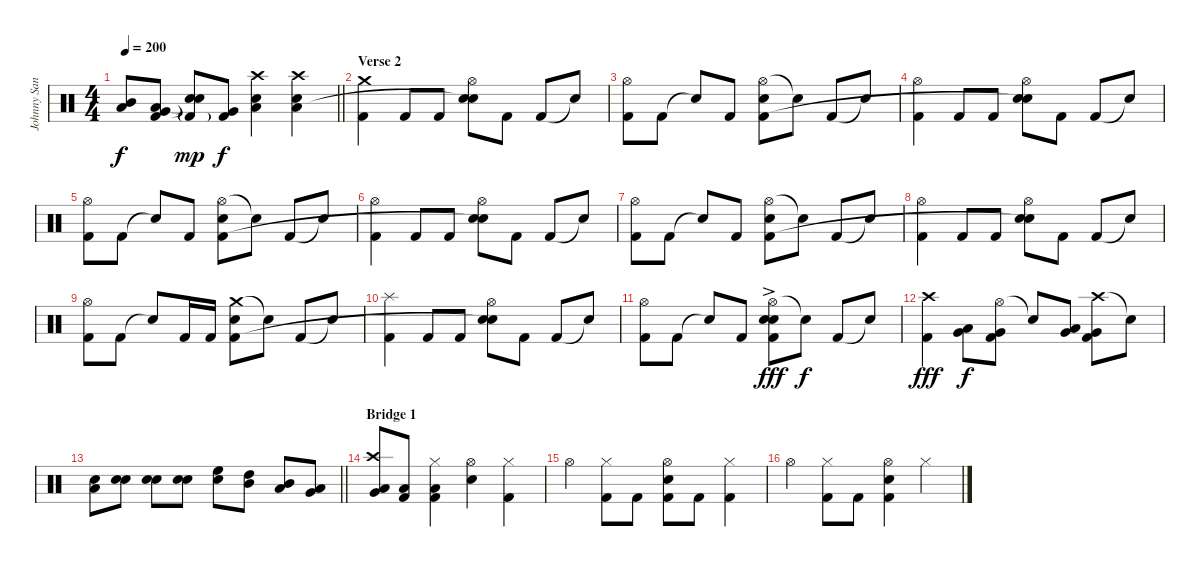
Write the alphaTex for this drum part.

\track ("Johnny Sandin" "Johnny San") {instrument percussion}
\staff {score}
\articulation defaults
\ts (4 4)
\tempo 200
\clef neutral
\barLineRight lightlight
\ks c
("Mid Tom (hit)" "Low Tom (hit)").8{dy f} ("Low Tom (hit)" "Very Low Tom (hit)" "Kick (hit) 2").8 ("Snare (hit)"{t} "Snare (hit)"{t} "Kick (hit) 2"{g}).8{dy mp} ("Very Low Tom (hit)" "Kick (hit) 2").8{dy f} ("Crash high (hit)" "Snare (hit) 2" "Low Tom (hit)").4 ("Crash high (hit)" "Snare (hit) 2" "Low Tom (hit)").4 |
\section ("" "Verse 2")
("Crash medium (hit)" "Kick (hit) 2").4 "Kick (hit) 2".8 "Kick (hit) 2".8 ("Hi-Hat (open)" "Snare (hit) 2" "Snare (hit)"{t}).8 "Kick (hit) 2".8 "Kick (hit) 2".8 "Snare (hit)"{t}.8 |
("Hi-Hat (open)" "Kick (hit) 2").8 "Kick (hit) 2".8 "Snare (hit)"{t}.8 "Kick (hit) 2".8 ("Hi-Hat (open)" "Snare (hit) 2" "Kick (hit) 2").8 "Snare (hit)"{t}.8 "Kick (hit) 2".8 "Snare (hit)"{t}.8 |
("Hi-Hat (open)" "Kick (hit) 2").4 "Kick (hit) 2".8 "Kick (hit) 2".8 ("Hi-Hat (open)" "Snare (hit) 2" "Snare (hit)"{t}).8 "Kick (hit) 2".8 "Kick (hit) 2".8 "Snare (hit)"{t}.8 |
("Hi-Hat (open)" "Kick (hit) 2").8 "Kick (hit) 2".8 "Snare (hit)"{t}.8 "Kick (hit) 2".8 ("Hi-Hat (open)" "Snare (hit) 2" "Kick (hit) 2").8 "Snare (hit)"{t}.8 "Kick (hit) 2".8 "Snare (hit)"{t}.8 |
("Hi-Hat (open)" "Kick (hit) 2").4 "Kick (hit) 2".8 "Kick (hit) 2".8 ("Hi-Hat (open)" "Snare (hit) 2" "Snare (hit)"{t}).8 "Kick (hit) 2".8 "Kick (hit) 2".8 "Snare (hit)"{t}.8 |
("Hi-Hat (open)" "Kick (hit) 2").8 "Kick (hit) 2".8 "Snare (hit)"{t}.8 "Kick (hit) 2".8 ("Hi-Hat (open)" "Snare (hit) 2" "Kick (hit) 2").8 "Snare (hit)"{t}.8 "Kick (hit) 2".8 "Snare (hit)"{t}.8 |
("Hi-Hat (open)" "Kick (hit) 2").4 "Kick (hit) 2".8 "Kick (hit) 2".8 ("Hi-Hat (open)" "Snare (hit) 2" "Snare (hit)"{t}).8 "Kick (hit) 2".8 "Kick (hit) 2".8 "Snare (hit)"{t}.8 |
("Hi-Hat (open)" "Kick (hit) 2").8 "Kick (hit) 2".8 "Snare (hit)"{t}.8 "Kick (hit) 2".16 "Kick (hit) 2".16 ("Crash medium (hit)" "Snare (hit) 2" "Kick (hit) 2").8 "Snare (hit)"{t}.8 "Kick (hit) 2".8 "Snare (hit)"{t}.8 |
("Splash (hit)" "Kick (hit) 2").4 "Kick (hit) 2".8 "Kick (hit) 2".8 ("Hi-Hat (open)" "Snare (hit) 2" "Snare (hit)"{t}).8 "Kick (hit) 2".8 "Kick (hit) 2".8 "Snare (hit)"{t}.8 |
("Hi-Hat (open)" "Kick (hit) 2").8 "Kick (hit) 2".8 "Snare (hit)"{t}.8 "Kick (hit) 2".8 ("Hi-Hat (open)" "Snare (hit) 2"{ac} "Kick (hit) 2" "Snare (hit) 2"{ac}).8{dy fff} "Snare (hit)"{t}.8{dy f} "Kick (hit) 2".8 "Snare (hit)"{t}.8 |
("Crash high (hit)" "Kick (hit) 2").4{dy fff} ("Low Tom (hit)" "Very Low Tom (hit)").8{dy f} ("Hi-Hat (open)" "Very Low Tom (hit)" "Kick (hit) 2").8 "Snare (hit)"{t}.8 ("Low Tom (hit)" "Very Low Tom (hit)").8 ("Crash high (hit)" "Very Low Tom (hit)" "Kick (hit) 2").8 "Snare (hit)"{t}.8 |
\barLineRight lightlight
("Snare (hit) 2" "Low Tom (hit)").8 ("Snare (hit) 2" "Snare (hit) 2").8 ("Snare (hit) 2" "Snare (hit) 2").8 ("Snare (hit) 2" "Snare (hit) 2").8 ("High Floor Tom (hit)" "Snare (hit) 2").8 ("High Tom (hit)" "Mid Tom (hit)").8 ("Mid Tom (hit)" "Low Tom (hit)").8 ("Low Tom (hit)" "Very Low Tom (hit)").8 |
\section ("" "Bridge 1")
("Crash high (hit)" "Very Low Tom (hit)" "Low Floor Tom (hit)").8 ("Low Floor Tom (hit)" "Kick (hit) 2").8 ("Hi-Hat (closed)" "Low Floor Tom (hit)" "Kick (hit) 2").4 ("Hi-Hat (open)" "Snare (hit) 2").4 ("Hi-Hat (closed)" "Kick (hit) 2").4 |
"Hi-Hat (open)".4 ("Hi-Hat (closed)" "Kick (hit) 2").8 "Kick (hit) 2".8 ("Hi-Hat (open)" "Snare (hit) 2" "Kick (hit) 2").8 "Kick (hit) 2".8 ("Hi-Hat (closed)" "Kick (hit) 2").4 |
"Hi-Hat (open)".4 ("Hi-Hat (closed)" "Kick (hit) 2").8 "Kick (hit) 2".8 ("Hi-Hat (open)" "Snare (hit) 2" "Kick (hit) 2").4 "Hi-Hat (closed)".4
